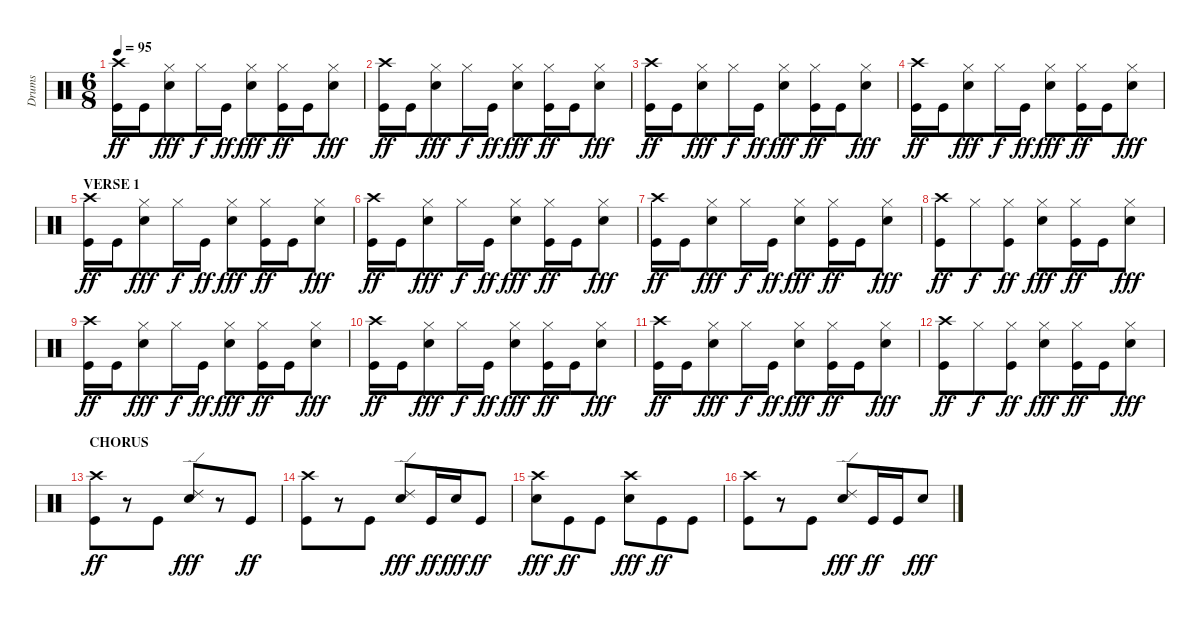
\track ("Drums" "Drums") {instrument percussion}
\staff {score}
\articulation defaults
\ts (6 8)
\tempo 95
\clef neutral
\ks c
("Crash high (hit)" "Kick (hit)").16{dy ff} "Kick (hit)".16 ("Hi-Hat (closed)" "Electric Snare (hit)").8{dy fff} "Hi-Hat (closed)".16{dy f} "Kick (hit)".16{dy ff} ("Hi-Hat (closed)" "Electric Snare (hit)").8{dy fff} ("Hi-Hat (closed)" "Kick (hit)").16{dy ff} "Kick (hit)".16 ("Hi-Hat (closed)" "Electric Snare (hit)").8{dy fff} |
("Crash high (hit)" "Kick (hit)").16{dy ff} "Kick (hit)".16 ("Hi-Hat (closed)" "Electric Snare (hit)").8{dy fff} "Hi-Hat (closed)".16{dy f} "Kick (hit)".16{dy ff} ("Hi-Hat (closed)" "Electric Snare (hit)").8{dy fff} ("Hi-Hat (closed)" "Kick (hit)").16{dy ff} "Kick (hit)".16 ("Hi-Hat (closed)" "Electric Snare (hit)").8{dy fff} |
("Crash high (hit)" "Kick (hit)").16{dy ff} "Kick (hit)".16 ("Hi-Hat (closed)" "Electric Snare (hit)").8{dy fff} "Hi-Hat (closed)".16{dy f} "Kick (hit)".16{dy ff} ("Hi-Hat (closed)" "Electric Snare (hit)").8{dy fff} ("Hi-Hat (closed)" "Kick (hit)").16{dy ff} "Kick (hit)".16 ("Hi-Hat (closed)" "Electric Snare (hit)").8{dy fff} |
("Crash high (hit)" "Kick (hit)").16{dy ff} "Kick (hit)".16 ("Hi-Hat (closed)" "Electric Snare (hit)").8{dy fff} "Hi-Hat (closed)".16{dy f} "Kick (hit)".16{dy ff} ("Hi-Hat (closed)" "Electric Snare (hit)").8{dy fff} ("Hi-Hat (closed)" "Kick (hit)").16{dy ff} "Kick (hit)".16 ("Hi-Hat (closed)" "Electric Snare (hit)").8{dy fff} |
\section ("" "VERSE 1")
("Crash high (hit)" "Kick (hit)").16{dy ff} "Kick (hit)".16 ("Hi-Hat (closed)" "Electric Snare (hit)").8{dy fff} "Hi-Hat (closed)".16{dy f} "Kick (hit)".16{dy ff} ("Hi-Hat (closed)" "Electric Snare (hit)").8{dy fff} ("Hi-Hat (closed)" "Kick (hit)").16{dy ff} "Kick (hit)".16 ("Hi-Hat (closed)" "Electric Snare (hit)").8{dy fff} |
("Crash high (hit)" "Kick (hit)").16{dy ff} "Kick (hit)".16 ("Hi-Hat (closed)" "Electric Snare (hit)").8{dy fff} "Hi-Hat (closed)".16{dy f} "Kick (hit)".16{dy ff} ("Hi-Hat (closed)" "Electric Snare (hit)").8{dy fff} ("Hi-Hat (closed)" "Kick (hit)").16{dy ff} "Kick (hit)".16 ("Hi-Hat (closed)" "Electric Snare (hit)").8{dy fff} |
("Crash high (hit)" "Kick (hit)").16{dy ff} "Kick (hit)".16 ("Hi-Hat (closed)" "Electric Snare (hit)").8{dy fff} "Hi-Hat (closed)".16{dy f} "Kick (hit)".16{dy ff} ("Hi-Hat (closed)" "Electric Snare (hit)").8{dy fff} ("Hi-Hat (closed)" "Kick (hit)").16{dy ff} "Kick (hit)".16 ("Hi-Hat (closed)" "Electric Snare (hit)").8{dy fff} |
("Crash high (hit)" "Kick (hit)").8{dy ff} "Hi-Hat (closed)".8{dy f} ("Hi-Hat (closed)" "Kick (hit)").8{dy ff} ("Hi-Hat (closed)" "Electric Snare (hit)").8{dy fff} ("Hi-Hat (closed)" "Kick (hit)").16{dy ff} "Kick (hit)".16 ("Hi-Hat (closed)" "Electric Snare (hit)").8{dy fff} |
("Crash high (hit)" "Kick (hit)").16{dy ff} "Kick (hit)".16 ("Hi-Hat (closed)" "Electric Snare (hit)").8{dy fff} "Hi-Hat (closed)".16{dy f} "Kick (hit)".16{dy ff} ("Hi-Hat (closed)" "Electric Snare (hit)").8{dy fff} ("Hi-Hat (closed)" "Kick (hit)").16{dy ff} "Kick (hit)".16 ("Hi-Hat (closed)" "Electric Snare (hit)").8{dy fff} |
("Crash high (hit)" "Kick (hit)").16{dy ff} "Kick (hit)".16 ("Hi-Hat (closed)" "Electric Snare (hit)").8{dy fff} "Hi-Hat (closed)".16{dy f} "Kick (hit)".16{dy ff} ("Hi-Hat (closed)" "Electric Snare (hit)").8{dy fff} ("Hi-Hat (closed)" "Kick (hit)").16{dy ff} "Kick (hit)".16 ("Hi-Hat (closed)" "Electric Snare (hit)").8{dy fff} |
("Crash high (hit)" "Kick (hit)").16{dy ff} "Kick (hit)".16 ("Hi-Hat (closed)" "Electric Snare (hit)").8{dy fff} "Hi-Hat (closed)".16{dy f} "Kick (hit)".16{dy ff} ("Hi-Hat (closed)" "Electric Snare (hit)").8{dy fff} ("Hi-Hat (closed)" "Kick (hit)").16{dy ff} "Kick (hit)".16 ("Hi-Hat (closed)" "Electric Snare (hit)").8{dy fff} |
("Crash high (hit)" "Kick (hit)").8{dy ff} "Hi-Hat (closed)".8{dy f} ("Hi-Hat (closed)" "Kick (hit)").8{dy ff} ("Hi-Hat (closed)" "Electric Snare (hit)").8{dy fff} ("Hi-Hat (closed)" "Kick (hit)").16{dy ff} "Kick (hit)".16 ("Hi-Hat (closed)" "Electric Snare (hit)").8{dy fff} |
\section ("" "CHORUS")
("Crash high (hit)" "Kick (hit)").8{dy ff} r.8 "Kick (hit)".8 ("Ride (edge) 2" "Electric Snare (hit)").8{dy fff} r.8 "Kick (hit)".8{dy ff} |
("Crash high (hit)" "Kick (hit)").8 r.8 "Kick (hit)".8 ("Ride (edge) 2" "Electric Snare (hit)").8{dy fff} "Kick (hit)".16{dy ff} "Electric Snare (hit)".16{dy fff} "Kick (hit)".8{dy ff} |
("Crash high (hit)" "Electric Snare (hit)").8{dy fff} "Kick (hit)".8{dy ff} "Kick (hit)".8 ("Crash high (hit)" "Electric Snare (hit)").8{dy fff} "Kick (hit)".8{dy ff} "Kick (hit)".8 |
("Crash high (hit)" "Kick (hit)").8 r.8 "Kick (hit)".8 ("Ride (edge) 2" "Electric Snare (hit)").8{dy fff} "Kick (hit)".16{dy ff} "Kick (hit)".16 "Electric Snare (hit)".8{dy fff}
